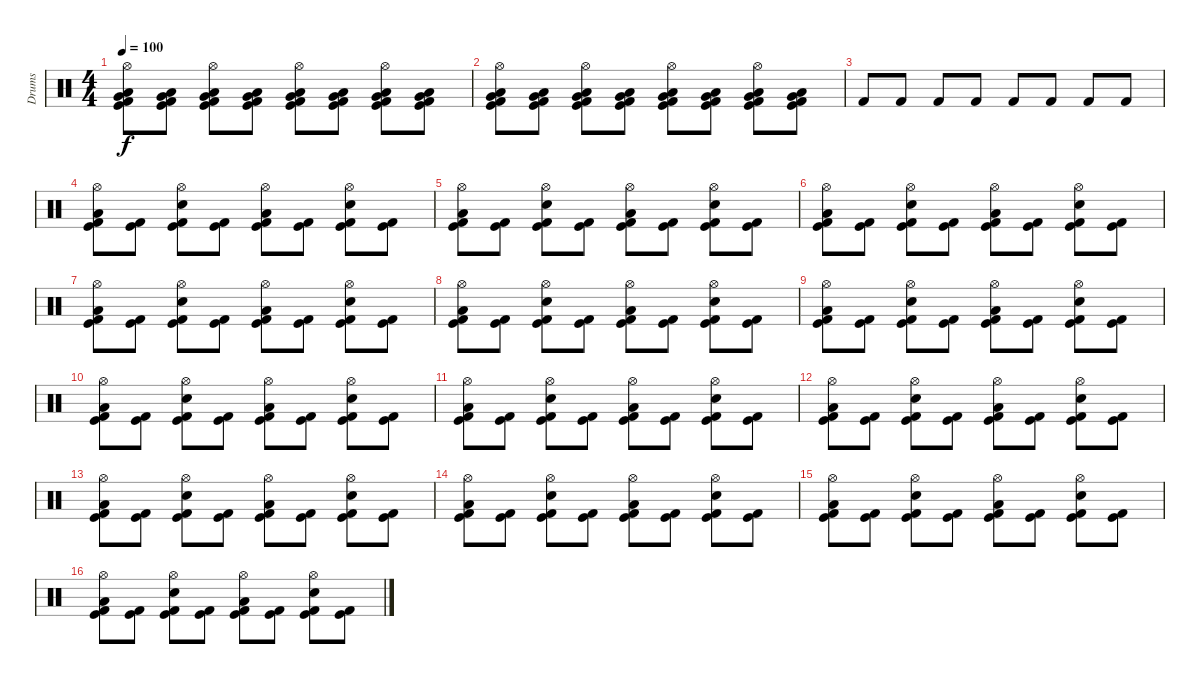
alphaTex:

\track ("Drums" "Drums") {instrument percussion}
\staff {score}
\articulation defaults
\ts (4 4)
\tempo 100
\clef neutral
\ks c
("Hi-Hat (open)" "Very Low Tom (hit)" "Low Floor Tom (hit)" "Kick (hit)" "Kick (hit) 2").8{dy f} ("Very Low Tom (hit)" "Low Floor Tom (hit)" "Kick (hit)" "Kick (hit) 2").8 ("Hi-Hat (open)" "Very Low Tom (hit)" "Low Floor Tom (hit)" "Kick (hit)" "Kick (hit) 2").8 ("Very Low Tom (hit)" "Low Floor Tom (hit)" "Kick (hit)" "Kick (hit) 2").8 ("Hi-Hat (open)" "Very Low Tom (hit)" "Low Floor Tom (hit)" "Kick (hit)" "Kick (hit) 2").8 ("Very Low Tom (hit)" "Low Floor Tom (hit)" "Kick (hit)" "Kick (hit) 2").8 ("Hi-Hat (open)" "Very Low Tom (hit)" "Low Floor Tom (hit)" "Kick (hit)" "Kick (hit) 2").8 ("Very Low Tom (hit)" "Low Floor Tom (hit)" "Kick (hit)" "Kick (hit) 2").8 |
("Hi-Hat (open)" "Very Low Tom (hit)" "Low Floor Tom (hit)" "Kick (hit)" "Kick (hit) 2").8 ("Very Low Tom (hit)" "Low Floor Tom (hit)" "Kick (hit)" "Kick (hit) 2").8 ("Hi-Hat (open)" "Very Low Tom (hit)" "Low Floor Tom (hit)" "Kick (hit)" "Kick (hit) 2").8 ("Very Low Tom (hit)" "Low Floor Tom (hit)" "Kick (hit)" "Kick (hit) 2").8 ("Hi-Hat (open)" "Very Low Tom (hit)" "Low Floor Tom (hit)" "Kick (hit)" "Kick (hit) 2").8 ("Very Low Tom (hit)" "Low Floor Tom (hit)" "Kick (hit)" "Kick (hit) 2").8 ("Hi-Hat (open)" "Very Low Tom (hit)" "Low Floor Tom (hit)" "Kick (hit)" "Kick (hit) 2").8 ("Very Low Tom (hit)" "Low Floor Tom (hit)" "Kick (hit)" "Kick (hit) 2").8 |
"Kick (hit) 2".8 "Kick (hit) 2".8 "Kick (hit) 2".8 "Kick (hit) 2".8 "Kick (hit) 2".8 "Kick (hit) 2".8 "Kick (hit) 2".8 "Kick (hit) 2".8 |
("Hi-Hat (open)" "Low Floor Tom (hit)" "Kick (hit)" "Kick (hit) 2").8 ("Kick (hit)" "Kick (hit) 2").8 ("Hi-Hat (open)" "Electric Snare (hit)" "Kick (hit)" "Kick (hit) 2").8 ("Kick (hit)" "Kick (hit) 2").8 ("Hi-Hat (open)" "Low Floor Tom (hit)" "Kick (hit)" "Kick (hit) 2").8 ("Kick (hit)" "Kick (hit) 2").8 ("Hi-Hat (open)" "Electric Snare (hit)" "Kick (hit)" "Kick (hit) 2").8 ("Kick (hit)" "Kick (hit) 2").8 |
("Hi-Hat (open)" "Low Floor Tom (hit)" "Kick (hit)" "Kick (hit) 2").8 ("Kick (hit)" "Kick (hit) 2").8 ("Hi-Hat (open)" "Electric Snare (hit)" "Kick (hit)" "Kick (hit) 2").8 ("Kick (hit)" "Kick (hit) 2").8 ("Hi-Hat (open)" "Low Floor Tom (hit)" "Kick (hit)" "Kick (hit) 2").8 ("Kick (hit)" "Kick (hit) 2").8 ("Hi-Hat (open)" "Electric Snare (hit)" "Kick (hit)" "Kick (hit) 2").8 ("Kick (hit)" "Kick (hit) 2").8 |
("Hi-Hat (open)" "Low Floor Tom (hit)" "Kick (hit)" "Kick (hit) 2").8 ("Kick (hit)" "Kick (hit) 2").8 ("Hi-Hat (open)" "Electric Snare (hit)" "Kick (hit)" "Kick (hit) 2").8 ("Kick (hit)" "Kick (hit) 2").8 ("Hi-Hat (open)" "Low Floor Tom (hit)" "Kick (hit)" "Kick (hit) 2").8 ("Kick (hit)" "Kick (hit) 2").8 ("Hi-Hat (open)" "Electric Snare (hit)" "Kick (hit)" "Kick (hit) 2").8 ("Kick (hit)" "Kick (hit) 2").8 |
("Hi-Hat (open)" "Low Floor Tom (hit)" "Kick (hit)" "Kick (hit) 2").8 ("Kick (hit)" "Kick (hit) 2").8 ("Hi-Hat (open)" "Electric Snare (hit)" "Kick (hit)" "Kick (hit) 2").8 ("Kick (hit)" "Kick (hit) 2").8 ("Hi-Hat (open)" "Low Floor Tom (hit)" "Kick (hit)" "Kick (hit) 2").8 ("Kick (hit)" "Kick (hit) 2").8 ("Hi-Hat (open)" "Electric Snare (hit)" "Kick (hit)" "Kick (hit) 2").8 ("Kick (hit)" "Kick (hit) 2").8 |
("Hi-Hat (open)" "Low Floor Tom (hit)" "Kick (hit)" "Kick (hit) 2").8 ("Kick (hit)" "Kick (hit) 2").8 ("Hi-Hat (open)" "Electric Snare (hit)" "Kick (hit)" "Kick (hit) 2").8 ("Kick (hit)" "Kick (hit) 2").8 ("Hi-Hat (open)" "Low Floor Tom (hit)" "Kick (hit)" "Kick (hit) 2").8 ("Kick (hit)" "Kick (hit) 2").8 ("Hi-Hat (open)" "Electric Snare (hit)" "Kick (hit)" "Kick (hit) 2").8 ("Kick (hit)" "Kick (hit) 2").8 |
("Hi-Hat (open)" "Low Floor Tom (hit)" "Kick (hit)" "Kick (hit) 2").8 ("Kick (hit)" "Kick (hit) 2").8 ("Hi-Hat (open)" "Electric Snare (hit)" "Kick (hit)" "Kick (hit) 2").8 ("Kick (hit)" "Kick (hit) 2").8 ("Hi-Hat (open)" "Low Floor Tom (hit)" "Kick (hit)" "Kick (hit) 2").8 ("Kick (hit)" "Kick (hit) 2").8 ("Hi-Hat (open)" "Electric Snare (hit)" "Kick (hit)" "Kick (hit) 2").8 ("Kick (hit)" "Kick (hit) 2").8 |
("Hi-Hat (open)" "Low Floor Tom (hit)" "Kick (hit)" "Kick (hit) 2").8 ("Kick (hit)" "Kick (hit) 2").8 ("Hi-Hat (open)" "Electric Snare (hit)" "Kick (hit)" "Kick (hit) 2").8 ("Kick (hit)" "Kick (hit) 2").8 ("Hi-Hat (open)" "Low Floor Tom (hit)" "Kick (hit)" "Kick (hit) 2").8 ("Kick (hit)" "Kick (hit) 2").8 ("Hi-Hat (open)" "Electric Snare (hit)" "Kick (hit)" "Kick (hit) 2").8 ("Kick (hit)" "Kick (hit) 2").8 |
("Hi-Hat (open)" "Low Floor Tom (hit)" "Kick (hit)" "Kick (hit) 2").8 ("Kick (hit)" "Kick (hit) 2").8 ("Hi-Hat (open)" "Electric Snare (hit)" "Kick (hit)" "Kick (hit) 2").8 ("Kick (hit)" "Kick (hit) 2").8 ("Hi-Hat (open)" "Low Floor Tom (hit)" "Kick (hit)" "Kick (hit) 2").8 ("Kick (hit)" "Kick (hit) 2").8 ("Hi-Hat (open)" "Electric Snare (hit)" "Kick (hit)" "Kick (hit) 2").8 ("Kick (hit)" "Kick (hit) 2").8 |
("Hi-Hat (open)" "Low Floor Tom (hit)" "Kick (hit)" "Kick (hit) 2").8 ("Kick (hit)" "Kick (hit) 2").8 ("Hi-Hat (open)" "Electric Snare (hit)" "Kick (hit)" "Kick (hit) 2").8 ("Kick (hit)" "Kick (hit) 2").8 ("Hi-Hat (open)" "Low Floor Tom (hit)" "Kick (hit)" "Kick (hit) 2").8 ("Kick (hit)" "Kick (hit) 2").8 ("Hi-Hat (open)" "Electric Snare (hit)" "Kick (hit)" "Kick (hit) 2").8 ("Kick (hit)" "Kick (hit) 2").8 |
("Hi-Hat (open)" "Low Floor Tom (hit)" "Kick (hit)" "Kick (hit) 2").8 ("Kick (hit)" "Kick (hit) 2").8 ("Hi-Hat (open)" "Electric Snare (hit)" "Kick (hit)" "Kick (hit) 2").8 ("Kick (hit)" "Kick (hit) 2").8 ("Hi-Hat (open)" "Low Floor Tom (hit)" "Kick (hit)" "Kick (hit) 2").8 ("Kick (hit)" "Kick (hit) 2").8 ("Hi-Hat (open)" "Electric Snare (hit)" "Kick (hit)" "Kick (hit) 2").8 ("Kick (hit)" "Kick (hit) 2").8 |
("Hi-Hat (open)" "Low Floor Tom (hit)" "Kick (hit)" "Kick (hit) 2").8 ("Kick (hit)" "Kick (hit) 2").8 ("Hi-Hat (open)" "Electric Snare (hit)" "Kick (hit)" "Kick (hit) 2").8 ("Kick (hit)" "Kick (hit) 2").8 ("Hi-Hat (open)" "Low Floor Tom (hit)" "Kick (hit)" "Kick (hit) 2").8 ("Kick (hit)" "Kick (hit) 2").8 ("Hi-Hat (open)" "Electric Snare (hit)" "Kick (hit)" "Kick (hit) 2").8 ("Kick (hit)" "Kick (hit) 2").8 |
("Hi-Hat (open)" "Low Floor Tom (hit)" "Kick (hit)" "Kick (hit) 2").8 ("Kick (hit)" "Kick (hit) 2").8 ("Hi-Hat (open)" "Electric Snare (hit)" "Kick (hit)" "Kick (hit) 2").8 ("Kick (hit)" "Kick (hit) 2").8 ("Hi-Hat (open)" "Low Floor Tom (hit)" "Kick (hit)" "Kick (hit) 2").8 ("Kick (hit)" "Kick (hit) 2").8 ("Hi-Hat (open)" "Electric Snare (hit)" "Kick (hit)" "Kick (hit) 2").8 ("Kick (hit)" "Kick (hit) 2").8 |
("Hi-Hat (open)" "Low Floor Tom (hit)" "Kick (hit)" "Kick (hit) 2").8 ("Kick (hit)" "Kick (hit) 2").8 ("Hi-Hat (open)" "Electric Snare (hit)" "Kick (hit)" "Kick (hit) 2").8 ("Kick (hit)" "Kick (hit) 2").8 ("Hi-Hat (open)" "Low Floor Tom (hit)" "Kick (hit)" "Kick (hit) 2").8 ("Kick (hit)" "Kick (hit) 2").8 ("Hi-Hat (open)" "Electric Snare (hit)" "Kick (hit)" "Kick (hit) 2").8 ("Kick (hit)" "Kick (hit) 2").8
